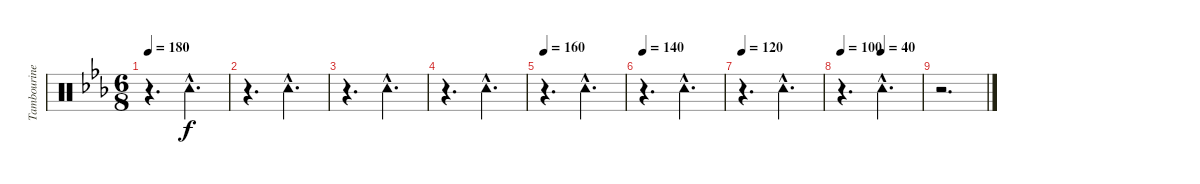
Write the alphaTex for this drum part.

\track ("Tambourine" "Tambourine") {instrument percussion}
\staff {score}
\articulation defaults
\ts (6 8)
\tempo 180
\clef neutral
\ks cminor
r.4{d dy f} "Tambourine (hit)"{hac}.4{d} |
r.4{d} "Tambourine (hit)"{hac}.4{d} |
r.4{d} "Tambourine (hit)"{hac}.4{d} |
r.4{d} "Tambourine (hit)"{hac}.4{d} |
\tempo 160
r.4{d} "Tambourine (hit)"{hac}.4{d} |
\tempo 140
r.4{d} "Tambourine (hit)"{hac}.4{d} |
\tempo 120
r.4{d} "Tambourine (hit)"{hac}.4{d} |
\tempo 100
\tempo (40 0.5)
r.4{d} "Tambourine (hit)"{hac}.4{d} |
r.2{d}
